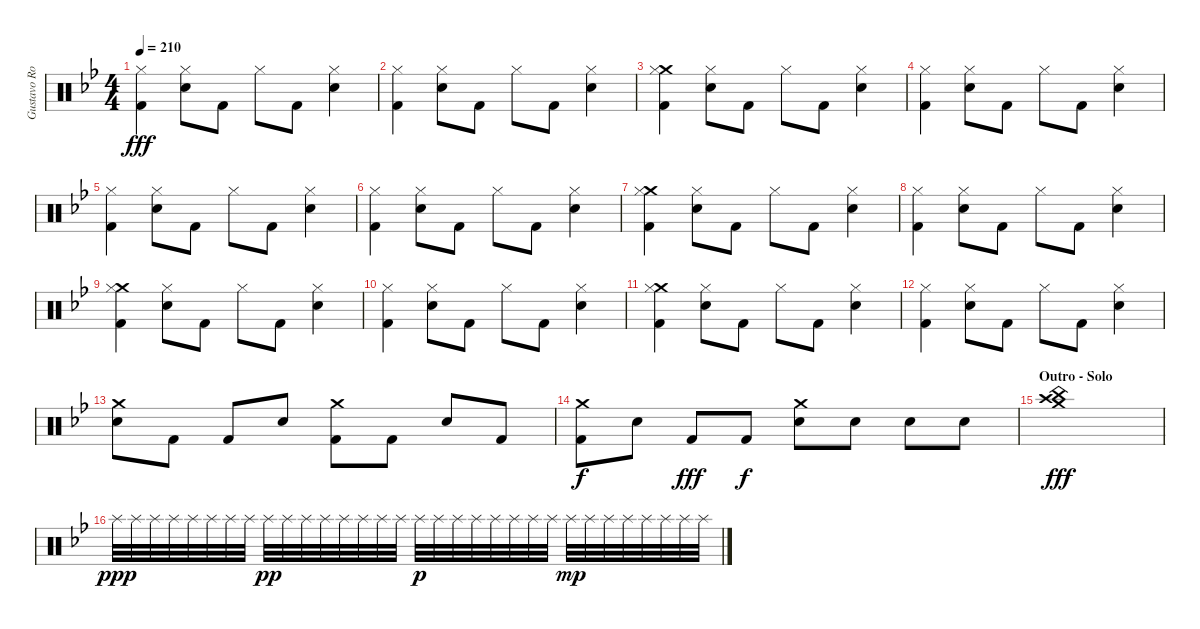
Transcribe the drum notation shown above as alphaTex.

\track ("Gustavo Rowek" "Gustavo Ro") {instrument percussion}
\staff {score}
\articulation defaults
\ts (4 4)
\tempo 210
\clef neutral
\ks gminor
("Hi-Hat (closed)" "Kick (hit) 2").4{dy fff} ("Hi-Hat (closed)" "Snare (hit) 2").8 "Kick (hit) 2".8 "Hi-Hat (closed)".8 "Kick (hit) 2".8 ("Hi-Hat (closed)" "Snare (hit) 2").4 |
("Hi-Hat (closed)" "Kick (hit) 2").4 ("Hi-Hat (closed)" "Snare (hit) 2").8 "Kick (hit) 2".8 "Hi-Hat (closed)".8 "Kick (hit) 2".8 ("Hi-Hat (closed)" "Snare (hit) 2").4 |
("Crash medium (hit)" "Hi-Hat (closed)" "Kick (hit) 2").4 ("Hi-Hat (closed)" "Snare (hit) 2").8 "Kick (hit) 2".8 "Hi-Hat (closed)".8 "Kick (hit) 2".8 ("Hi-Hat (closed)" "Snare (hit) 2").4 |
("Hi-Hat (closed)" "Kick (hit) 2").4 ("Hi-Hat (closed)" "Snare (hit) 2").8 "Kick (hit) 2".8 "Hi-Hat (closed)".8 "Kick (hit) 2".8 ("Hi-Hat (closed)" "Snare (hit) 2").4 |
("Hi-Hat (closed)" "Kick (hit) 2").4 ("Hi-Hat (closed)" "Snare (hit) 2").8 "Kick (hit) 2".8 "Hi-Hat (closed)".8 "Kick (hit) 2".8 ("Hi-Hat (closed)" "Snare (hit) 2").4 |
("Hi-Hat (closed)" "Kick (hit) 2").4 ("Hi-Hat (closed)" "Snare (hit) 2").8 "Kick (hit) 2".8 "Hi-Hat (closed)".8 "Kick (hit) 2".8 ("Hi-Hat (closed)" "Snare (hit) 2").4 |
("Crash medium (hit)" "Hi-Hat (closed)" "Kick (hit) 2").4 ("Hi-Hat (closed)" "Snare (hit) 2").8 "Kick (hit) 2".8 "Hi-Hat (closed)".8 "Kick (hit) 2".8 ("Hi-Hat (closed)" "Snare (hit) 2").4 |
("Hi-Hat (closed)" "Kick (hit) 2").4 ("Hi-Hat (closed)" "Snare (hit) 2").8 "Kick (hit) 2".8 "Hi-Hat (closed)".8 "Kick (hit) 2".8 ("Hi-Hat (closed)" "Snare (hit) 2").4 |
("Crash medium (hit)" "Hi-Hat (closed)" "Kick (hit) 2").4 ("Hi-Hat (closed)" "Snare (hit) 2").8 "Kick (hit) 2".8 "Hi-Hat (closed)".8 "Kick (hit) 2".8 ("Hi-Hat (closed)" "Snare (hit) 2").4 |
("Hi-Hat (closed)" "Kick (hit) 2").4 ("Hi-Hat (closed)" "Snare (hit) 2").8 "Kick (hit) 2".8 "Hi-Hat (closed)".8 "Kick (hit) 2".8 ("Hi-Hat (closed)" "Snare (hit) 2").4 |
("Crash medium (hit)" "Hi-Hat (closed)" "Kick (hit) 2").4 ("Hi-Hat (closed)" "Snare (hit) 2").8 "Kick (hit) 2".8 "Hi-Hat (closed)".8 "Kick (hit) 2".8 ("Hi-Hat (closed)" "Snare (hit) 2").4 |
("Hi-Hat (closed)" "Kick (hit) 2").4 ("Hi-Hat (closed)" "Snare (hit) 2").8 "Kick (hit) 2".8 "Hi-Hat (closed)".8 "Kick (hit) 2".8 ("Hi-Hat (closed)" "Snare (hit) 2").4 |
("Crash medium (hit)" "Snare (hit) 2").8 "Kick (hit) 2".8 "Kick (hit) 2".8 "Snare (hit) 2".8 ("Crash medium (hit)" "Kick (hit) 2").8 "Kick (hit) 2".8 "Snare (hit) 2".8 "Kick (hit) 2".8 |
("Crash medium (hit)" "Kick (hit) 2").8{dy f} "Snare (hit) 2".8 "Kick (hit) 2".8{dy fff} "Kick (hit) 2".8{dy f} ("Crash medium (hit)" "Snare (hit) 2").8 "Snare (hit) 2".8 "Snare (hit) 2".8 "Snare (hit) 2".8 |
\section ("" "Outro - Solo")
("China (hit)" "Crash high (hit)" "Crash medium (hit)").1{dy fff} |
"Splash (hit)".32{dy ppp} "Splash (hit)".32 "Splash (hit)".32 "Splash (hit)".32 "Splash (hit)".32 "Splash (hit)".32 "Splash (hit)".32 "Splash (hit)".32 "Splash (hit)".32{dy pp} "Splash (hit)".32 "Splash (hit)".32 "Splash (hit)".32 "Splash (hit)".32 "Splash (hit)".32 "Splash (hit)".32 "Splash (hit)".32 "Splash (hit)".32{dy p} "Splash (hit)".32 "Splash (hit)".32 "Splash (hit)".32 "Splash (hit)".32 "Splash (hit)".32 "Splash (hit)".32 "Splash (hit)".32 "Splash (hit)".32{dy mp} "Splash (hit)".32 "Splash (hit)".32 "Splash (hit)".32 "Splash (hit)".32 "Splash (hit)".32 "Splash (hit)".32 "Splash (hit)".32
